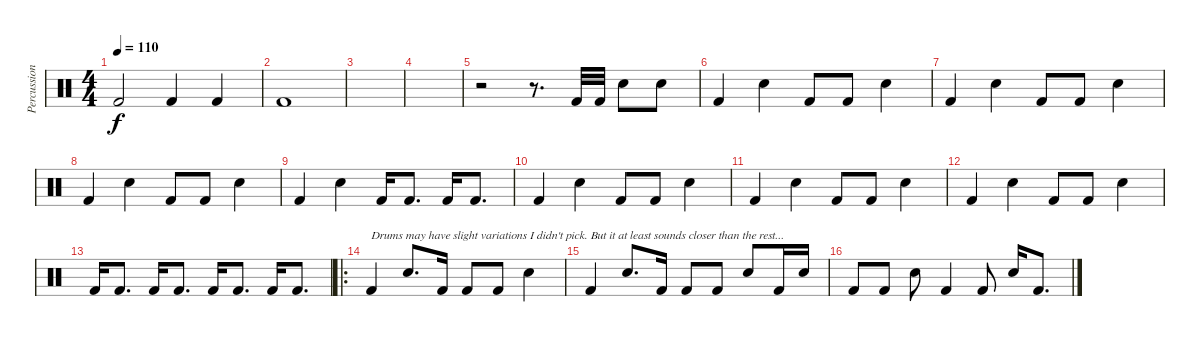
\track ("Percussion" "Percussion") {instrument percussion}
\staff {score}
\articulation defaults
\ts (4 4)
\tempo 110
\clef neutral
\ks c "Kick (hit) 2".2{dy f} "Kick (hit) 2".4 "Kick (hit) 2".4
|
"Kick (hit) 2".1 |
|
|
r.2{volume 16} r.8{d} "Kick (hit) 2".32 "Kick (hit) 2".32 "Snare (hit) 2".8 "Snare (hit) 2".8 |
"Kick (hit) 2".4 "Snare (hit) 2".4 "Kick (hit) 2".8 "Kick (hit) 2".8 "Snare (hit) 2".4 |
"Kick (hit) 2".4 "Snare (hit) 2".4 "Kick (hit) 2".8 "Kick (hit) 2".8 "Snare (hit) 2".4 |
"Kick (hit) 2".4 "Snare (hit) 2".4 "Kick (hit) 2".8 "Kick (hit) 2".8 "Snare (hit) 2".4 |
"Kick (hit) 2".4 "Snare (hit) 2".4 "Kick (hit) 2".16 "Kick (hit) 2".8{d} "Kick (hit) 2".16 "Kick (hit) 2".8{d} |
"Kick (hit) 2".4 "Snare (hit) 2".4 "Kick (hit) 2".8 "Kick (hit) 2".8 "Snare (hit) 2".4 |
"Kick (hit) 2".4 "Snare (hit) 2".4 "Kick (hit) 2".8 "Kick (hit) 2".8 "Snare (hit) 2".4 |
"Kick (hit) 2".4 "Snare (hit) 2".4 "Kick (hit) 2".8 "Kick (hit) 2".8 "Snare (hit) 2".4 |
"Kick (hit) 2".16 "Kick (hit) 2".8{d} "Kick (hit) 2".16 "Kick (hit) 2".8{d} "Kick (hit) 2".16 "Kick (hit) 2".8{d} "Kick (hit) 2".16 "Kick (hit) 2".8{d} |
\ro "Kick (hit) 2".4{txt "Drums may have slight variations I didn't pick."} "Snare (hit) 2".8{d} "Kick (hit) 2".16 "Kick (hit) 2".8 "Kick (hit) 2".8 "Snare (hit) 2".4
|
"Kick (hit) 2".4{txt "But it at least sounds closer than the rest..."} "Snare (hit) 2".8{d} "Kick (hit) 2".16 "Kick (hit) 2".8 "Kick (hit) 2".8 "Snare (hit) 2".8 "Kick (hit) 2".16 "Snare (hit) 2".16 |
"Kick (hit) 2".8 "Kick (hit) 2".8 "Snare (hit) 2".8 "Kick (hit) 2".4 "Kick (hit) 2".8 "Snare (hit) 2".16 "Kick (hit) 2".8{d}
